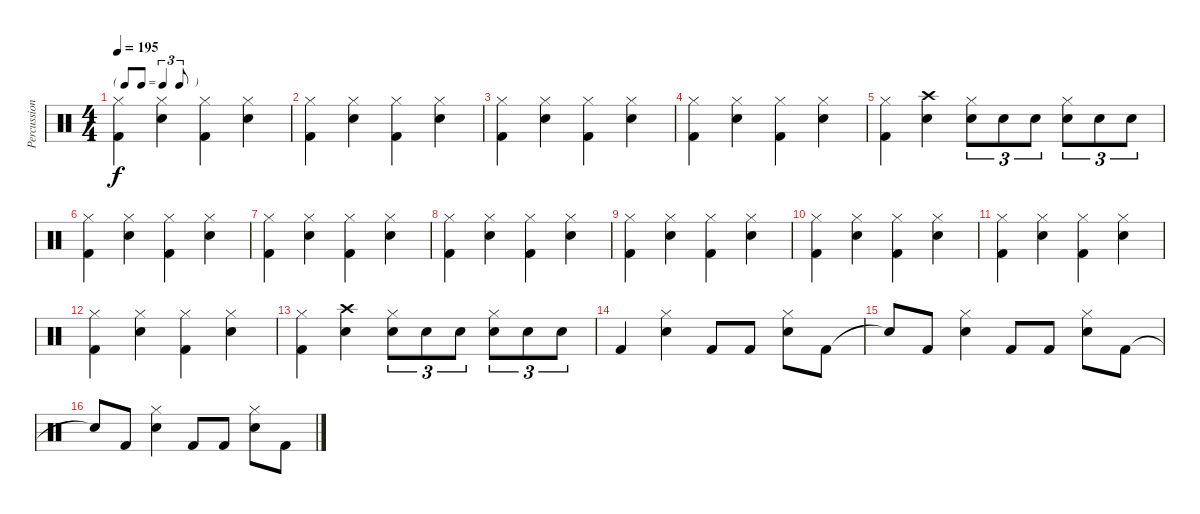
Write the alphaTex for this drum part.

\track ("Percussions" "Percussion") {instrument percussion}
\staff {score}
\articulation defaults
\ts (4 4)
\tf triplet8th
\tempo 195
\clef neutral
\ks c
("Hi-Hat (closed)" "Kick (hit) 2").4{dy f} ("Snare (hit) 2" "Hi-Hat (closed)").4 ("Hi-Hat (closed)" "Kick (hit) 2").4 ("Snare (hit) 2" "Hi-Hat (closed)").4 |
("Hi-Hat (closed)" "Kick (hit) 2").4 ("Snare (hit) 2" "Hi-Hat (closed)").4 ("Hi-Hat (closed)" "Kick (hit) 2").4 ("Snare (hit) 2" "Hi-Hat (closed)").4 |
("Hi-Hat (closed)" "Kick (hit) 2").4 ("Snare (hit) 2" "Hi-Hat (closed)").4 ("Hi-Hat (closed)" "Kick (hit) 2").4 ("Snare (hit) 2" "Hi-Hat (closed)").4 |
("Hi-Hat (closed)" "Kick (hit) 2").4 ("Snare (hit) 2" "Hi-Hat (closed)").4 ("Hi-Hat (closed)" "Kick (hit) 2").4 ("Snare (hit) 2" "Hi-Hat (closed)").4 |
("Hi-Hat (closed)" "Kick (hit) 2").4 ("Snare (hit) 2" "Crash high (hit)").4 ("Snare (hit) 2" "Hi-Hat (closed)").8{tu (3 2)} "Snare (hit) 2".8{tu (3 2)} "Snare (hit) 2".8{tu (3 2)} ("Snare (hit) 2" "Hi-Hat (closed)").8{tu (3 2)} "Snare (hit) 2".8{tu (3 2)} "Snare (hit) 2".8{tu (3 2)} |
("Hi-Hat (closed)" "Kick (hit) 2").4 ("Snare (hit) 2" "Hi-Hat (closed)").4 ("Hi-Hat (closed)" "Kick (hit) 2").4 ("Snare (hit) 2" "Hi-Hat (closed)").4 |
("Hi-Hat (closed)" "Kick (hit) 2").4 ("Snare (hit) 2" "Hi-Hat (closed)").4 ("Hi-Hat (closed)" "Kick (hit) 2").4 ("Snare (hit) 2" "Hi-Hat (closed)").4 |
("Hi-Hat (closed)" "Kick (hit) 2").4 ("Snare (hit) 2" "Hi-Hat (closed)").4 ("Hi-Hat (closed)" "Kick (hit) 2").4 ("Snare (hit) 2" "Hi-Hat (closed)").4 |
("Hi-Hat (closed)" "Kick (hit) 2").4 ("Snare (hit) 2" "Hi-Hat (closed)").4 ("Hi-Hat (closed)" "Kick (hit) 2").4 ("Snare (hit) 2" "Hi-Hat (closed)").4 |
("Hi-Hat (closed)" "Kick (hit) 2").4 ("Snare (hit) 2" "Hi-Hat (closed)").4 ("Hi-Hat (closed)" "Kick (hit) 2").4 ("Snare (hit) 2" "Hi-Hat (closed)").4 |
("Hi-Hat (closed)" "Kick (hit) 2").4 ("Snare (hit) 2" "Hi-Hat (closed)").4 ("Hi-Hat (closed)" "Kick (hit) 2").4 ("Snare (hit) 2" "Hi-Hat (closed)").4 |
("Hi-Hat (closed)" "Kick (hit) 2").4 ("Snare (hit) 2" "Hi-Hat (closed)").4 ("Hi-Hat (closed)" "Kick (hit) 2").4 ("Snare (hit) 2" "Hi-Hat (closed)").4 |
("Hi-Hat (closed)" "Kick (hit) 2").4 ("Snare (hit) 2" "Crash high (hit)").4 ("Snare (hit) 2" "Hi-Hat (closed)").8{tu (3 2)} "Snare (hit) 2".8{tu (3 2)} "Snare (hit) 2".8{tu (3 2)} ("Snare (hit) 2" "Hi-Hat (closed)").8{tu (3 2)} "Snare (hit) 2".8{tu (3 2)} "Snare (hit) 2".8{tu (3 2)} |
"Kick (hit) 2".4 ("Snare (hit) 2" "Hi-Hat (closed)").4 "Kick (hit) 2".8 "Kick (hit) 2".8 ("Snare (hit) 2" "Hi-Hat (closed)").8 "Kick (hit) 2".8 |
"Snare (hit)"{t}.8 "Kick (hit) 2".8 ("Snare (hit) 2" "Hi-Hat (closed)").4 "Kick (hit) 2".8 "Kick (hit) 2".8 ("Snare (hit) 2" "Hi-Hat (closed)").8 "Kick (hit) 2".8 |
"Snare (hit)"{t}.8 "Kick (hit) 2".8 ("Snare (hit) 2" "Hi-Hat (closed)").4 "Kick (hit) 2".8 "Kick (hit) 2".8 ("Snare (hit) 2" "Hi-Hat (closed)").8 "Kick (hit) 2".8
